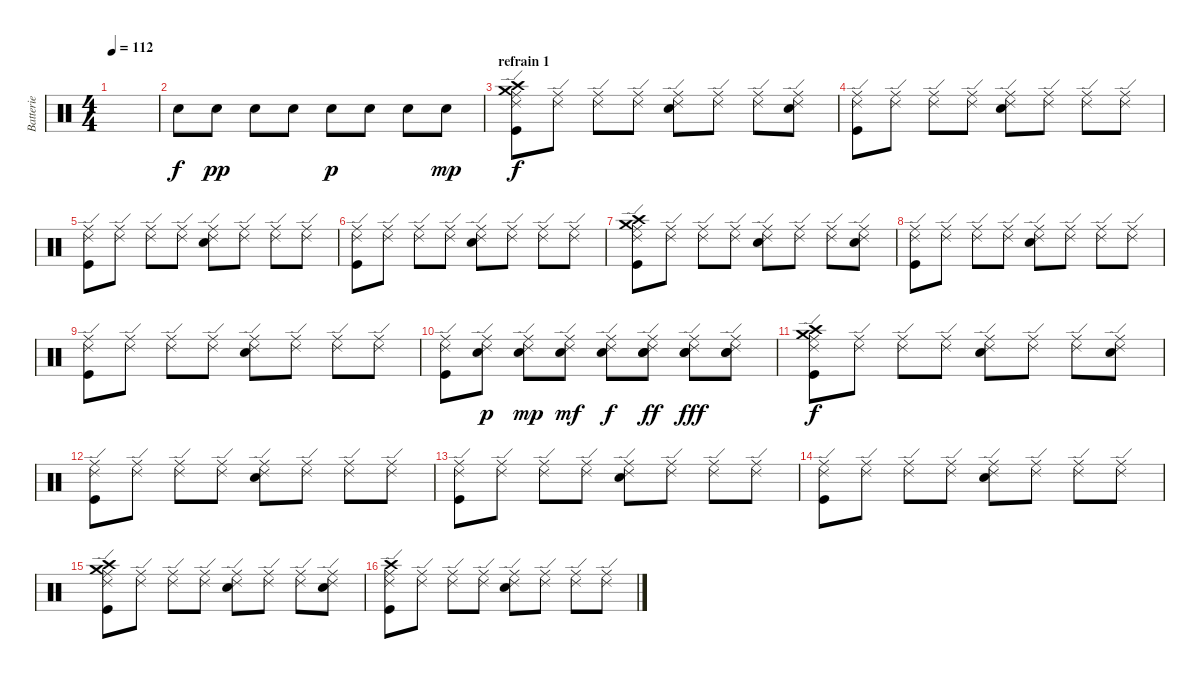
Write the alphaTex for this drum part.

\track ("Batterie" "Batterie") {instrument percussion}
\staff {score}
\articulation defaults
\ts (4 4)
\tempo 112
\clef neutral
\ks c
|
"Snare (hit) 2".8 "Snare (hit) 2".8{dy pp} "Snare (hit) 2".8 "Snare (hit) 2".8 "Snare (hit) 2".8{dy p} "Snare (hit) 2".8 "Snare (hit) 2".8 "Snare (hit) 2".8{dy mp} |
\section ("" "refrain 1")
("Crash high (hit)" "Crash medium (hit)" "Ride (middle)" "Ride (edge) 2" "Kick (hit)").8{dy f} ("Ride (middle)" "Ride (edge) 2").8 ("Ride (middle)" "Ride (edge) 2").8 ("Ride (middle)" "Ride (edge) 2").8 ("Ride (middle)" "Ride (edge) 2" "Snare (hit) 2").8 ("Ride (middle)" "Ride (edge) 2").8 ("Ride (middle)" "Ride (edge) 2").8 ("Ride (middle)" "Ride (edge) 2" "Snare (hit) 2").8 |
("Ride (middle)" "Ride (edge) 2" "Kick (hit)").8 ("Ride (middle)" "Ride (edge) 2").8 ("Ride (middle)" "Ride (edge) 2").8 ("Ride (middle)" "Ride (edge) 2").8 ("Ride (middle)" "Ride (edge) 2" "Snare (hit) 2").8 ("Ride (middle)" "Ride (edge) 2").8 ("Ride (middle)" "Ride (edge) 2").8 ("Ride (middle)" "Ride (edge) 2").8 |
("Ride (middle)" "Ride (edge) 2" "Kick (hit)").8 ("Ride (middle)" "Ride (edge) 2").8 ("Ride (middle)" "Ride (edge) 2").8 ("Ride (middle)" "Ride (edge) 2").8 ("Ride (middle)" "Ride (edge) 2" "Snare (hit) 2").8 ("Ride (middle)" "Ride (edge) 2").8 ("Ride (middle)" "Ride (edge) 2").8 ("Ride (middle)" "Ride (edge) 2").8 |
("Ride (middle)" "Ride (edge) 2" "Kick (hit)").8 ("Ride (middle)" "Ride (edge) 2").8 ("Ride (middle)" "Ride (edge) 2").8 ("Ride (middle)" "Ride (edge) 2").8 ("Ride (middle)" "Ride (edge) 2" "Snare (hit) 2").8 ("Ride (middle)" "Ride (edge) 2").8 ("Ride (middle)" "Ride (edge) 2").8 ("Ride (middle)" "Ride (edge) 2").8 |
("Crash high (hit)" "Crash medium (hit)" "Ride (middle)" "Ride (edge) 2" "Kick (hit)").8 ("Ride (middle)" "Ride (edge) 2").8 ("Ride (middle)" "Ride (edge) 2").8 ("Ride (middle)" "Ride (edge) 2").8 ("Ride (middle)" "Ride (edge) 2" "Snare (hit) 2").8 ("Ride (middle)" "Ride (edge) 2").8 ("Ride (middle)" "Ride (edge) 2").8 ("Ride (middle)" "Ride (edge) 2" "Snare (hit) 2").8 |
("Ride (middle)" "Ride (edge) 2" "Kick (hit)").8 ("Ride (middle)" "Ride (edge) 2").8 ("Ride (middle)" "Ride (edge) 2").8 ("Ride (middle)" "Ride (edge) 2").8 ("Ride (middle)" "Ride (edge) 2" "Snare (hit) 2").8 ("Ride (middle)" "Ride (edge) 2").8 ("Ride (middle)" "Ride (edge) 2").8 ("Ride (middle)" "Ride (edge) 2").8 |
("Ride (middle)" "Ride (edge) 2" "Kick (hit)").8 ("Ride (middle)" "Ride (edge) 2").8 ("Ride (middle)" "Ride (edge) 2").8 ("Ride (middle)" "Ride (edge) 2").8 ("Ride (middle)" "Ride (edge) 2" "Snare (hit) 2").8 ("Ride (middle)" "Ride (edge) 2").8 ("Ride (middle)" "Ride (edge) 2").8 ("Ride (middle)" "Ride (edge) 2").8 |
("Ride (middle)" "Ride (edge) 2" "Kick (hit)").8 ("Ride (middle)" "Ride (edge) 2" "Snare (hit) 2").8{dy p} ("Ride (middle)" "Ride (edge) 2" "Snare (hit) 2").8{dy mp} ("Ride (middle)" "Ride (edge) 2" "Snare (hit) 2").8{dy mf} ("Ride (middle)" "Ride (edge) 2" "Snare (hit) 2").8{dy f} ("Ride (middle)" "Ride (edge) 2" "Snare (hit) 2" "Snare (hit) 2").8{dy ff} ("Ride (middle)" "Ride (edge) 2" "Snare (hit) 2" "Snare (hit) 2").8{dy fff} ("Ride (middle)" "Ride (edge) 2" "Snare (hit) 2" "Snare (hit) 2").8 |
("Crash high (hit)" "Crash medium (hit)" "Ride (middle)" "Ride (edge) 2" "Kick (hit)").8{dy f} ("Ride (middle)" "Ride (edge) 2").8 ("Ride (middle)" "Ride (edge) 2").8 ("Ride (middle)" "Ride (edge) 2").8 ("Ride (middle)" "Ride (edge) 2" "Snare (hit) 2").8 ("Ride (middle)" "Ride (edge) 2").8 ("Ride (middle)" "Ride (edge) 2").8 ("Ride (middle)" "Ride (edge) 2" "Snare (hit) 2").8 |
("Ride (middle)" "Ride (edge) 2" "Kick (hit)").8 ("Ride (middle)" "Ride (edge) 2").8 ("Ride (middle)" "Ride (edge) 2").8 ("Ride (middle)" "Ride (edge) 2").8 ("Ride (middle)" "Ride (edge) 2" "Snare (hit) 2").8 ("Ride (middle)" "Ride (edge) 2").8 ("Ride (middle)" "Ride (edge) 2").8 ("Ride (middle)" "Ride (edge) 2").8 |
("Ride (middle)" "Ride (edge) 2" "Kick (hit)").8 ("Ride (middle)" "Ride (edge) 2").8 ("Ride (middle)" "Ride (edge) 2").8 ("Ride (middle)" "Ride (edge) 2").8 ("Ride (middle)" "Ride (edge) 2" "Snare (hit) 2").8 ("Ride (middle)" "Ride (edge) 2").8 ("Ride (middle)" "Ride (edge) 2").8 ("Ride (middle)" "Ride (edge) 2").8 |
("Ride (middle)" "Ride (edge) 2" "Kick (hit)").8 ("Ride (middle)" "Ride (edge) 2").8 ("Ride (middle)" "Ride (edge) 2").8 ("Ride (middle)" "Ride (edge) 2").8 ("Ride (middle)" "Ride (edge) 2" "Snare (hit) 2").8 ("Ride (middle)" "Ride (edge) 2").8 ("Ride (middle)" "Ride (edge) 2").8 ("Ride (middle)" "Ride (edge) 2").8 |
("Crash high (hit)" "Crash medium (hit)" "Ride (middle)" "Ride (edge) 2" "Kick (hit)").8 ("Ride (middle)" "Ride (edge) 2").8 ("Ride (middle)" "Ride (edge) 2").8 ("Ride (middle)" "Ride (edge) 2").8 ("Ride (middle)" "Ride (edge) 2" "Snare (hit) 2").8 ("Ride (middle)" "Ride (edge) 2").8 ("Ride (middle)" "Ride (edge) 2").8 ("Ride (middle)" "Ride (edge) 2" "Snare (hit) 2").8 |
("Ride (middle)" "Crash high (hit)" "Ride (edge) 2" "Kick (hit)").8 ("Ride (middle)" "Ride (edge) 2").8 ("Ride (middle)" "Ride (edge) 2").8 ("Ride (middle)" "Ride (edge) 2").8 ("Ride (middle)" "Ride (edge) 2" "Snare (hit) 2").8 ("Ride (middle)" "Ride (edge) 2").8 ("Ride (middle)" "Ride (edge) 2").8 ("Ride (middle)" "Ride (edge) 2").8
